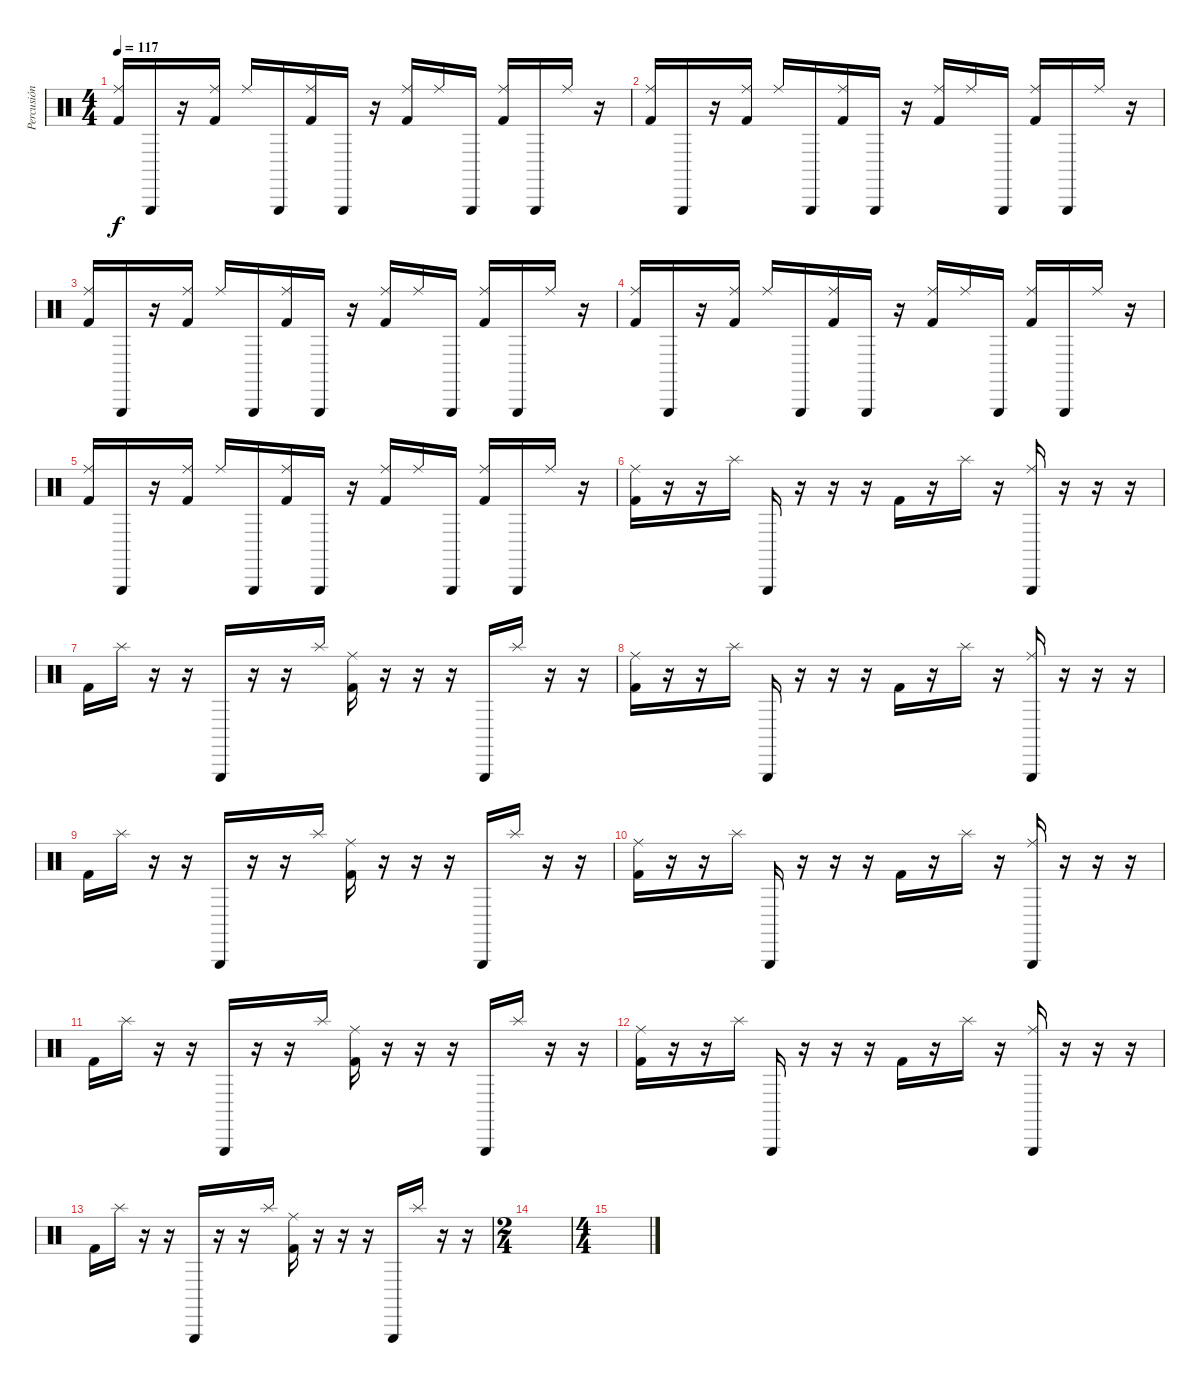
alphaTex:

\track ("Percusión" "Percusión") {instrument percussion}
\staff {score}
\articulation defaults
\ts (4 4)
\tempo 117
\clef neutral
\ks c
("Ride (middle)" "Kick (hit) 2").16{dy f} "Triangle (hit)".16 r.16 ("Ride (middle)" "Kick (hit) 2").16 "Ride (middle)".16 "Triangle (hit)".16 ("Ride (middle)" "Kick (hit) 2").16 "Triangle (hit)".16 r.16 ("Ride (middle)" "Kick (hit) 2").16 "Ride (middle)".16 "Triangle (hit)".16 ("Ride (middle)" "Kick (hit) 2").16 "Triangle (hit)".16 "Ride (middle)".16 r.16 |
("Ride (middle)" "Kick (hit) 2").16 "Triangle (hit)".16 r.16 ("Ride (middle)" "Kick (hit) 2").16 "Ride (middle)".16 "Triangle (hit)".16 ("Ride (middle)" "Kick (hit) 2").16 "Triangle (hit)".16 r.16 ("Ride (middle)" "Kick (hit) 2").16 "Ride (middle)".16 "Triangle (hit)".16 ("Ride (middle)" "Kick (hit) 2").16 "Triangle (hit)".16 "Ride (middle)".16 r.16 |
("Ride (middle)" "Kick (hit) 2").16 "Triangle (hit)".16 r.16 ("Ride (middle)" "Kick (hit) 2").16 "Ride (middle)".16 "Triangle (hit)".16 ("Ride (middle)" "Kick (hit) 2").16 "Triangle (hit)".16 r.16 ("Ride (middle)" "Kick (hit) 2").16 "Ride (middle)".16 "Triangle (hit)".16 ("Ride (middle)" "Kick (hit) 2").16 "Triangle (hit)".16 "Ride (middle)".16 r.16 |
("Ride (middle)" "Kick (hit) 2").16 "Triangle (hit)".16 r.16 ("Ride (middle)" "Kick (hit) 2").16 "Ride (middle)".16 "Triangle (hit)".16 ("Ride (middle)" "Kick (hit) 2").16 "Triangle (hit)".16 r.16 ("Ride (middle)" "Kick (hit) 2").16 "Ride (middle)".16 "Triangle (hit)".16 ("Ride (middle)" "Kick (hit) 2").16 "Triangle (hit)".16 "Ride (middle)".16 r.16 |
("Ride (middle)" "Kick (hit) 2").16 "Triangle (hit)".16 r.16 ("Ride (middle)" "Kick (hit) 2").16 "Ride (middle)".16 "Triangle (hit)".16 ("Ride (middle)" "Kick (hit) 2").16 "Triangle (hit)".16 r.16 ("Ride (middle)" "Kick (hit) 2").16 "Ride (middle)".16 "Triangle (hit)".16 ("Ride (middle)" "Kick (hit) 2").16 "Triangle (hit)".16 "Ride (middle)".16 r.16 |
("Ride (middle)" "Kick (hit) 2").16 r.16 r.16 "Splash (hit)".16 "Triangle (hit)".16 r.16 r.16 r.16 "Kick (hit) 2".16 r.16 "Splash (hit)".16 r.16 ("Ride (middle)" "Triangle (hit)").16 r.16 r.16 r.16 |
"Kick (hit) 2".16 "Splash (hit)".16 r.16 r.16 "Triangle (hit)".16 r.16 r.16 "Splash (hit)".16 ("Ride (middle)" "Kick (hit) 2").16 r.16 r.16 r.16 "Triangle (hit)".16 "Splash (hit)".16 r.16 r.16 |
("Ride (middle)" "Kick (hit) 2").16 r.16 r.16 "Splash (hit)".16 "Triangle (hit)".16 r.16 r.16 r.16 "Kick (hit) 2".16 r.16 "Splash (hit)".16 r.16 ("Ride (middle)" "Triangle (hit)").16 r.16 r.16 r.16 |
"Kick (hit) 2".16 "Splash (hit)".16 r.16 r.16 "Triangle (hit)".16 r.16 r.16 "Splash (hit)".16 ("Ride (middle)" "Kick (hit) 2").16 r.16 r.16 r.16 "Triangle (hit)".16 "Splash (hit)".16 r.16 r.16 |
("Ride (middle)" "Kick (hit) 2").16 r.16 r.16 "Splash (hit)".16 "Triangle (hit)".16 r.16 r.16 r.16 "Kick (hit) 2".16 r.16 "Splash (hit)".16 r.16 ("Ride (middle)" "Triangle (hit)").16 r.16 r.16 r.16 |
"Kick (hit) 2".16 "Splash (hit)".16 r.16 r.16 "Triangle (hit)".16 r.16 r.16 "Splash (hit)".16 ("Ride (middle)" "Kick (hit) 2").16 r.16 r.16 r.16 "Triangle (hit)".16 "Splash (hit)".16 r.16 r.16 |
("Ride (middle)" "Kick (hit) 2").16 r.16 r.16 "Splash (hit)".16 "Triangle (hit)".16 r.16 r.16 r.16 "Kick (hit) 2".16 r.16 "Splash (hit)".16 r.16 ("Ride (middle)" "Triangle (hit)").16 r.16 r.16 r.16 |
"Kick (hit) 2".16 "Splash (hit)".16 r.16 r.16 "Triangle (hit)".16 r.16 r.16 "Splash (hit)".16 ("Ride (middle)" "Kick (hit) 2").16 r.16 r.16 r.16 "Triangle (hit)".16 "Splash (hit)".16 r.16 r.16 |
\ts (2 4)
|
\ts (4 4)
